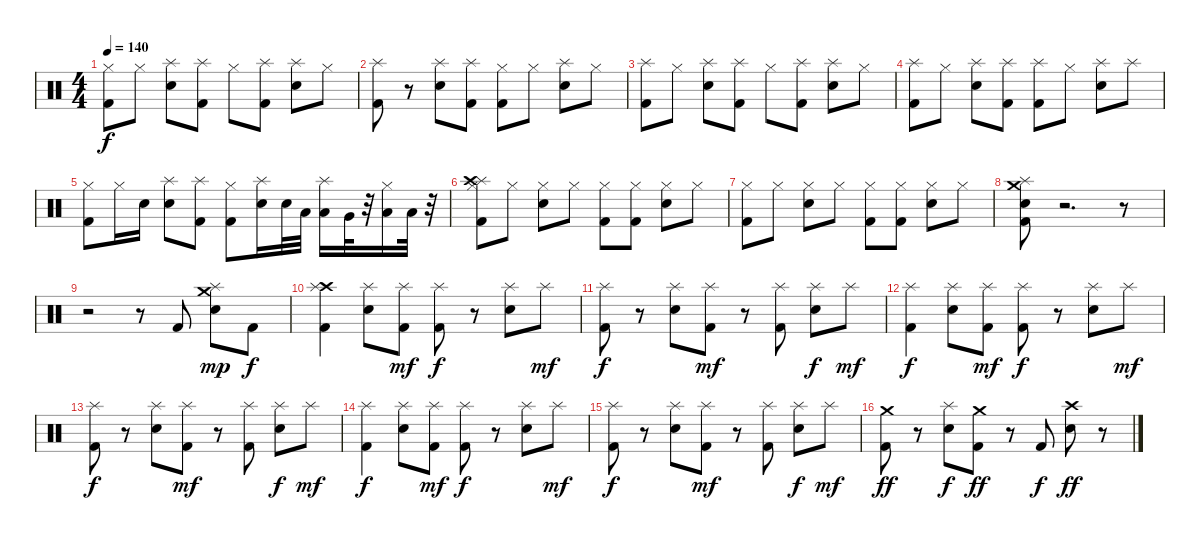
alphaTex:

\track "" {instrument percussion}
\staff {score}
\articulation defaults
\ts (4 4)
\tempo 140
\clef neutral
\ks c
("Hi-Hat (closed)" "Kick (hit) 2").8{dy f} "Hi-Hat (closed)".8 ("Splash (hit)" "Electric Snare (hit)").8 ("Splash (hit)" "Kick (hit) 2").8 "Hi-Hat (closed)".8 ("Splash (hit)" "Kick (hit) 2").8 ("Splash (hit)" "Electric Snare (hit)").8 "Hi-Hat (closed)".8 |
("Splash (hit)" "Kick (hit) 2").8 r.8 ("Splash (hit)" "Electric Snare (hit)").8 ("Splash (hit)" "Kick (hit) 2").8 ("Hi-Hat (closed)" "Kick (hit) 2").8 "Hi-Hat (closed)".8 ("Splash (hit)" "Electric Snare (hit)").8 "Hi-Hat (closed)".8 |
("Splash (hit)" "Kick (hit) 2").8 "Hi-Hat (closed)".8 ("Splash (hit)" "Electric Snare (hit)").8 ("Splash (hit)" "Kick (hit) 2").8 "Hi-Hat (closed)".8 ("Splash (hit)" "Kick (hit) 2").8 ("Splash (hit)" "Electric Snare (hit)").8 "Hi-Hat (closed)".8 |
("Splash (hit)" "Kick (hit) 2").8 "Hi-Hat (closed)".8 ("Splash (hit)" "Electric Snare (hit)").8 ("Splash (hit)" "Kick (hit) 2").8 ("Splash (hit)" "Kick (hit) 2").8 "Hi-Hat (closed)".8 ("Splash (hit)" "Electric Snare (hit)").8 "Splash (hit)".8 |
("Hi-Hat (closed)" "Kick (hit) 2").8 "Hi-Hat (closed)".16 "Electric Snare (hit)".16 ("Splash (hit)" "Electric Snare (hit)").8 ("Splash (hit)" "Kick (hit) 2").8 ("Kick (hit) 2" "Hi-Hat (closed)").8 ("Electric Snare (hit)" "Splash (hit)").16 "Electric Snare (hit)".32 "Low Tom (hit)".32 ("Splash (hit)" "Low Tom (hit)").16 "Very Low Tom (hit)".32 r.32 ("Low Floor Tom (hit)" "Hi-Hat (closed)").16 "Low Floor Tom (hit)".32 r.32 |
("Splash (hit)" "Crash high (hit)" "Hi-Hat (closed)" "Kick (hit) 2").8 "Hi-Hat (closed)".8 ("Hi-Hat (closed)" "Electric Snare (hit)").8 "Hi-Hat (closed)".8 ("Hi-Hat (closed)" "Kick (hit) 2").8 ("Hi-Hat (closed)" "Kick (hit) 2").8 ("Hi-Hat (closed)" "Electric Snare (hit)").8 "Hi-Hat (closed)".8 |
("Hi-Hat (closed)" "Kick (hit) 2").8 "Hi-Hat (closed)".8 ("Hi-Hat (closed)" "Electric Snare (hit)").8 "Hi-Hat (closed)".8 ("Hi-Hat (closed)" "Kick (hit) 2").8 ("Hi-Hat (closed)" "Kick (hit) 2").8 ("Hi-Hat (closed)" "Electric Snare (hit)").8 "Hi-Hat (closed)".8 |
("Splash (hit)" "Crash medium (hit)" "Electric Snare (hit)" "Kick (hit) 2").8 r.2{d} r.8 |
r.2 r.8 "Kick (hit) 2".8 ("Crash medium (hit)" "Splash (hit)" "Electric Snare (hit)").8{dy mp} "Kick (hit) 2".8{dy f} |
("Crash high (hit)" "Splash (hit)" "Kick (hit) 2").4 ("Splash (hit)" "Electric Snare (hit)").8 ("Splash (hit)" "Kick (hit) 2").8{dy mf} ("Splash (hit)" "Kick (hit) 2").8{dy f} r.8 ("Splash (hit)" "Electric Snare (hit)").8 "Splash (hit)".8{dy mf} |
("Splash (hit)" "Kick (hit) 2").8{dy f} r.8 ("Splash (hit)" "Electric Snare (hit)").8 ("Splash (hit)" "Kick (hit) 2").8{dy mf} r.8 ("Splash (hit)" "Kick (hit) 2").8 ("Splash (hit)" "Electric Snare (hit)").8{dy f} "Splash (hit)".8{dy mf} |
("Splash (hit)" "Kick (hit) 2").4{dy f} ("Splash (hit)" "Electric Snare (hit)").8 ("Splash (hit)" "Kick (hit) 2").8{dy mf} ("Splash (hit)" "Kick (hit) 2").8{dy f} r.8 ("Splash (hit)" "Electric Snare (hit)").8 "Splash (hit)".8{dy mf} |
("Splash (hit)" "Kick (hit) 2").8{dy f} r.8 ("Splash (hit)" "Electric Snare (hit)").8 ("Splash (hit)" "Kick (hit) 2").8{dy mf} r.8 ("Splash (hit)" "Kick (hit) 2").8 ("Splash (hit)" "Electric Snare (hit)").8{dy f} "Splash (hit)".8{dy mf} |
("Splash (hit)" "Kick (hit) 2").4{dy f} ("Splash (hit)" "Electric Snare (hit)").8 ("Splash (hit)" "Kick (hit) 2").8{dy mf} ("Splash (hit)" "Kick (hit) 2").8{dy f} r.8 ("Splash (hit)" "Electric Snare (hit)").8 "Splash (hit)".8{dy mf} |
("Splash (hit)" "Kick (hit) 2").8{dy f} r.8 ("Splash (hit)" "Electric Snare (hit)").8 ("Splash (hit)" "Kick (hit) 2").8{dy mf} r.8 ("Splash (hit)" "Kick (hit) 2").8 ("Splash (hit)" "Electric Snare (hit)").8{dy f} "Splash (hit)".8{dy mf} |
("Crash medium (hit)" "Kick (hit) 2").8{dy ff} r.8 ("Splash (hit)" "Electric Snare (hit)").8{dy f} ("Crash medium (hit)" "Kick (hit) 2").8{dy ff} r.8 "Kick (hit) 2".8{dy f} ("Crash high (hit)" "Electric Snare (hit)").8{dy ff} r.8
